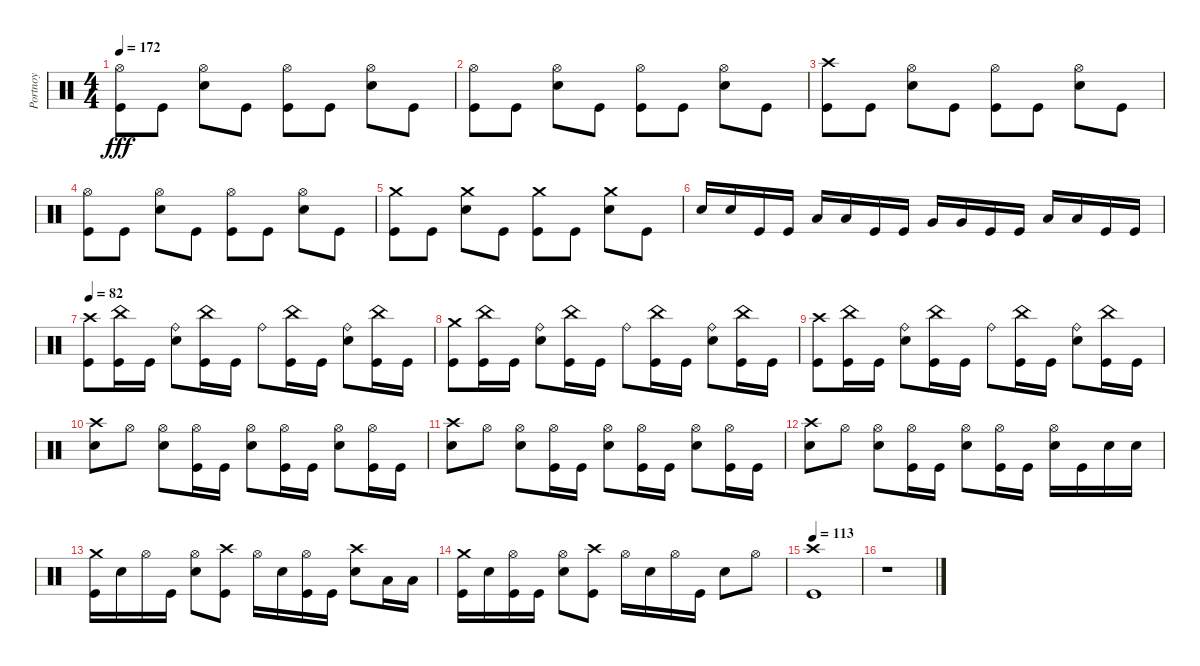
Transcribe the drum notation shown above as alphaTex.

\track ("Portnoy" "Portnoy") {instrument percussion}
\staff {score}
\articulation defaults
\ts (4 4)
\tempo 172
\clef neutral
\ks c
("Hi-Hat (open)" "Kick (hit)").8{dy fff} "Kick (hit)".8 ("Hi-Hat (open)" "Snare (hit) 2").8 "Kick (hit)".8 ("Hi-Hat (open)" "Kick (hit)").8 "Kick (hit)".8 ("Hi-Hat (open)" "Snare (hit) 2").8 "Kick (hit)".8 |
("Hi-Hat (open)" "Kick (hit)").8 "Kick (hit)".8 ("Hi-Hat (open)" "Snare (hit) 2").8 "Kick (hit)".8 ("Hi-Hat (open)" "Kick (hit)").8 "Kick (hit)".8 ("Hi-Hat (open)" "Snare (hit) 2").8 "Kick (hit)".8 |
("Crash high (hit)" "Kick (hit)").8 "Kick (hit)".8 ("Hi-Hat (open)" "Snare (hit) 2").8 "Kick (hit)".8 ("Hi-Hat (open)" "Kick (hit)").8 "Kick (hit)".8 ("Hi-Hat (open)" "Snare (hit) 2").8 "Kick (hit)".8 |
("Hi-Hat (open)" "Kick (hit)").8 "Kick (hit)".8 ("Hi-Hat (open)" "Snare (hit) 2").8 "Kick (hit)".8 ("Hi-Hat (open)" "Kick (hit)").8 "Kick (hit)".8 ("Hi-Hat (open)" "Snare (hit) 2").8 "Kick (hit)".8 |
("Crash medium (hit)" "Kick (hit)").8 "Kick (hit)".8 ("Crash medium (hit)" "Snare (hit) 2").8 "Kick (hit)".8 ("Crash medium (hit)" "Kick (hit)").8 "Kick (hit)".8 ("Crash medium (hit)" "Snare (hit) 2").8 "Kick (hit)".8 |
"Snare (hit) 2".16 "Snare (hit) 2".16 "Kick (hit)".16 "Kick (hit)".16 "Low Tom (hit)".16 "Low Tom (hit)".16 "Kick (hit)".16 "Kick (hit)".16 "Very Low Tom (hit)".16 "Very Low Tom (hit)".16 "Kick (hit)".16 "Kick (hit)".16 "Low Floor Tom (hit)".16 "Low Floor Tom (hit)".16 "Kick (hit)".16 "Kick (hit)".16 |
\tempo 82
("Crash high (hit)" "Kick (hit)").8 ("China (hit)" "Kick (hit)").16 "Kick (hit)".16 ("Ride (bell)" "Snare (hit) 2").8 ("China (hit)" "Kick (hit)").16 "Kick (hit)".16 "Ride (bell)".8 ("China (hit)" "Kick (hit)").16 "Kick (hit)".16 ("Ride (bell)" "Snare (hit) 2").8 ("China (hit)" "Kick (hit)").16 "Kick (hit)".16 |
("Crash medium (hit)" "Kick (hit)").8 ("China (hit)" "Kick (hit)").16 "Kick (hit)".16 ("Ride (bell)" "Snare (hit) 2").8 ("China (hit)" "Kick (hit)").16 "Kick (hit)".16 "Ride (bell)".8 ("China (hit)" "Kick (hit)").16 "Kick (hit)".16 ("Ride (bell)" "Snare (hit) 2").8 ("China (hit)" "Kick (hit)").16 "Kick (hit)".16 |
("Crash high (hit)" "Kick (hit)").8 ("China (hit)" "Kick (hit)").16 "Kick (hit)".16 ("Ride (bell)" "Snare (hit) 2").8 ("China (hit)" "Kick (hit)").16 "Kick (hit)".16 "Ride (bell)".8 ("China (hit)" "Kick (hit)").16 "Kick (hit)".16 ("Ride (bell)" "Snare (hit) 2").8 ("China (hit)" "Kick (hit)").16 "Kick (hit)".16 |
("Crash high (hit)" "Snare (hit) 2").8 "Hi-Hat (open)".8 ("Hi-Hat (open)" "Snare (hit) 2").8 ("Hi-Hat (open)" "Kick (hit)").16 "Kick (hit)".16 ("Hi-Hat (open)" "Snare (hit) 2").8 ("Hi-Hat (open)" "Kick (hit)").16 "Kick (hit)".16 ("Hi-Hat (open)" "Snare (hit) 2").8 ("Hi-Hat (open)" "Kick (hit)").16 "Kick (hit)".16 |
("Crash high (hit)" "Snare (hit) 2").8 "Hi-Hat (open)".8 ("Hi-Hat (open)" "Snare (hit) 2").8 ("Hi-Hat (open)" "Kick (hit)").16 "Kick (hit)".16 ("Hi-Hat (open)" "Snare (hit) 2").8 ("Hi-Hat (open)" "Kick (hit)").16 "Kick (hit)".16 ("Hi-Hat (open)" "Snare (hit) 2").8 ("Hi-Hat (open)" "Kick (hit)").16 "Kick (hit)".16 |
("Crash high (hit)" "Snare (hit) 2").8 "Hi-Hat (open)".8 ("Hi-Hat (open)" "Snare (hit) 2").8 ("Hi-Hat (open)" "Kick (hit)").16 "Kick (hit)".16 ("Hi-Hat (open)" "Snare (hit) 2").8 ("Hi-Hat (open)" "Kick (hit)").16 "Kick (hit)".16 ("Hi-Hat (open)" "Snare (hit) 2").16 "Kick (hit)".16 "Snare (hit) 2".16 "Snare (hit) 2".16 |
("Crash medium (hit)" "Kick (hit)").16 "Snare (hit) 2".16 "Hi-Hat (open)".16 "Kick (hit)".16 ("Hi-Hat (open)" "Snare (hit) 2").8 ("Crash high (hit)" "Kick (hit)").8 "Hi-Hat (open)".16 "Snare (hit) 2".16 ("Hi-Hat (open)" "Kick (hit)").16 "Kick (hit)".16 ("Crash high (hit)" "Snare (hit) 2").8 "Low Tom (hit)".16 "Low Tom (hit)".16 |
("Crash medium (hit)" "Kick (hit)").16 "Snare (hit) 2".16 ("Hi-Hat (open)" "Kick (hit)").16 "Kick (hit)".16 ("Hi-Hat (open)" "Snare (hit) 2").8 ("Crash high (hit)" "Kick (hit)").8 "Hi-Hat (open)".16 "Snare (hit) 2".16 "Hi-Hat (open)".16 "Kick (hit)".16 "Snare (hit) 2".8 "Hi-Hat (open)".8 |
\tempo 113
("Crash high (hit)" "Kick (hit)").1 |
r.1
